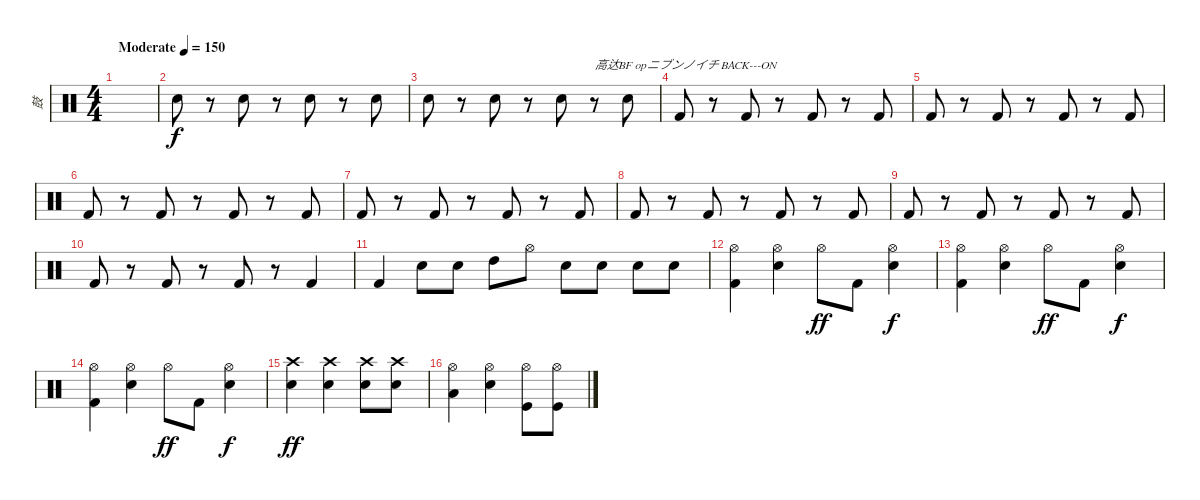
\track ("鼓" "鼓") {instrument percussion}
\staff {score}
\articulation defaults
\ts (4 4)
\tempo (150 "Moderate")
\clef neutral
\ks c
|
"Snare (hit)".8 r.8 "Snare (hit)".8 r.8 "Snare (hit)".8 r.8 "Snare (hit)".8 |
"Snare (hit)".8 r.8 "Snare (hit)".8 r.8 "Snare (hit)".8 r.8{txt "高达BF opニブンノイチ BACK---ON"} "Snare (hit)".8 |
"Kick (hit) 2".8 r.8 "Kick (hit) 2".8 r.8 "Kick (hit) 2".8 r.8 "Kick (hit) 2".8 |
"Kick (hit) 2".8 r.8 "Kick (hit) 2".8 r.8 "Kick (hit) 2".8 r.8 "Kick (hit) 2".8 |
"Kick (hit) 2".8 r.8 "Kick (hit) 2".8 r.8 "Kick (hit) 2".8 r.8 "Kick (hit) 2".8 |
"Kick (hit) 2".8 r.8 "Kick (hit) 2".8 r.8 "Kick (hit) 2".8 r.8 "Kick (hit) 2".8 |
"Kick (hit) 2".8 r.8 "Kick (hit) 2".8 r.8 "Kick (hit) 2".8 r.8 "Kick (hit) 2".8 |
"Kick (hit) 2".8 r.8 "Kick (hit) 2".8 r.8 "Kick (hit) 2".8 r.8 "Kick (hit) 2".8 |
"Kick (hit) 2".8 r.8 "Kick (hit) 2".8 r.8 "Kick (hit) 2".8 r.8 "Kick (hit) 2".4 |
"Kick (hit) 2".4 "Electric Snare (hit)".8 "Electric Snare (hit)".8 "High Tom (hit)".8 "Hi-Hat (open)".8 "Electric Snare (hit)".8 "Electric Snare (hit)".8 "Electric Snare (hit)".8 "Electric Snare (hit)".8 |
("Hi-Hat (open)" "Kick (hit) 2").4 ("Hi-Hat (open)" "Electric Snare (hit)").4 "Hi-Hat (open)".8{dy ff} "Kick (hit) 2".8 ("Hi-Hat (open)" "Electric Snare (hit)").4{dy f} |
("Hi-Hat (open)" "Kick (hit) 2").4 ("Hi-Hat (open)" "Electric Snare (hit)").4 "Hi-Hat (open)".8{dy ff} "Kick (hit) 2".8 ("Hi-Hat (open)" "Electric Snare (hit)").4{dy f} |
("Hi-Hat (open)" "Kick (hit) 2").4 ("Hi-Hat (open)" "Electric Snare (hit)").4 "Hi-Hat (open)".8{dy ff} "Kick (hit) 2".8 ("Hi-Hat (open)" "Electric Snare (hit)").4{dy f} |
("Crash high (hit)" "Electric Snare (hit)").4{dy ff} ("Crash high (hit)" "Electric Snare (hit)").4 ("Crash high (hit)" "Electric Snare (hit)").8 ("Crash high (hit)" "Electric Snare (hit)").8 |
("Hi-Hat (open)" "Low Tom (hit)").4 ("Hi-Hat (open)" "Electric Snare (hit)").4 ("Hi-Hat (open)" "Kick (hit)").8 ("Hi-Hat (open)" "Kick (hit)").8
